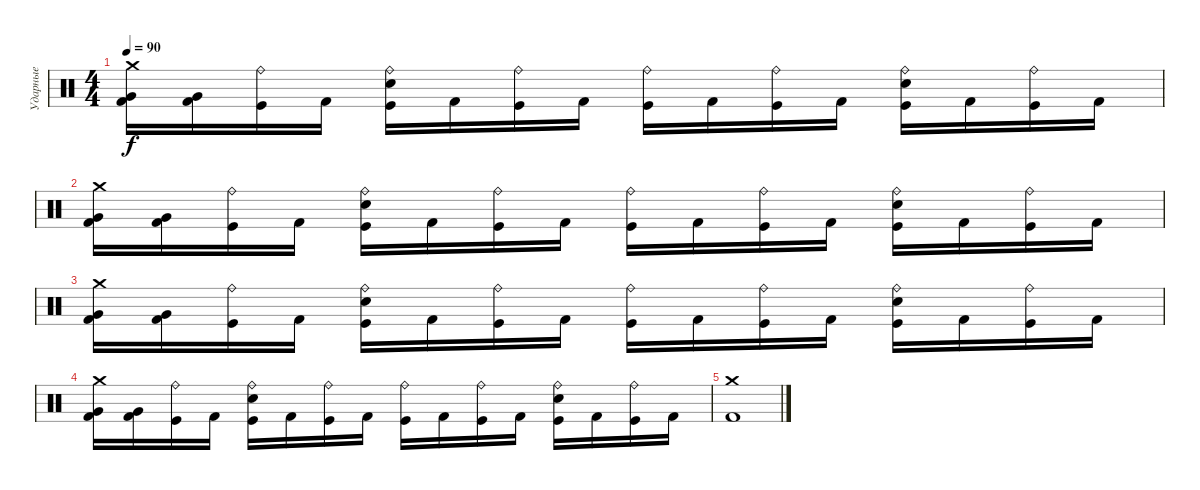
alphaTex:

\track ("Ударные" "Ударные") {instrument percussion}
\staff {score}
\articulation defaults
\ts (4 4)
\tempo 90
\clef neutral
\ks c
("Very Low Tom (hit)" "Kick (hit) 2" "Crash medium (hit)").16{dy f} ("Very Low Tom (hit)" "Kick (hit) 2").16 ("Kick (hit)" "Ride (bell)").16 "Kick (hit) 2".16 ("Kick (hit)" "Electric Snare (hit)" "Ride (bell)").16 "Kick (hit) 2".16 ("Kick (hit)" "Ride (bell)").16 "Kick (hit) 2".16 ("Kick (hit)" "Ride (bell)").16 "Kick (hit) 2".16 ("Kick (hit)" "Ride (bell)").16 "Kick (hit) 2".16 ("Kick (hit)" "Electric Snare (hit)" "Ride (bell)").16 "Kick (hit) 2".16 ("Kick (hit)" "Ride (bell)").16 "Kick (hit) 2".16 |
("Very Low Tom (hit)" "Kick (hit) 2" "Crash medium (hit)").16 ("Very Low Tom (hit)" "Kick (hit) 2").16 ("Kick (hit)" "Ride (bell)").16 "Kick (hit) 2".16 ("Kick (hit)" "Electric Snare (hit)" "Ride (bell)").16 "Kick (hit) 2".16 ("Kick (hit)" "Ride (bell)").16 "Kick (hit) 2".16 ("Kick (hit)" "Ride (bell)").16 "Kick (hit) 2".16 ("Kick (hit)" "Ride (bell)").16 "Kick (hit) 2".16 ("Kick (hit)" "Electric Snare (hit)" "Ride (bell)").16 "Kick (hit) 2".16 ("Kick (hit)" "Ride (bell)").16 "Kick (hit) 2".16 |
("Very Low Tom (hit)" "Kick (hit) 2" "Crash medium (hit)").16 ("Very Low Tom (hit)" "Kick (hit) 2").16 ("Kick (hit)" "Ride (bell)").16 "Kick (hit) 2".16 ("Kick (hit)" "Electric Snare (hit)" "Ride (bell)").16 "Kick (hit) 2".16 ("Kick (hit)" "Ride (bell)").16 "Kick (hit) 2".16 ("Kick (hit)" "Ride (bell)").16 "Kick (hit) 2".16 ("Kick (hit)" "Ride (bell)").16 "Kick (hit) 2".16 ("Kick (hit)" "Electric Snare (hit)" "Ride (bell)").16 "Kick (hit) 2".16 ("Kick (hit)" "Ride (bell)").16 "Kick (hit) 2".16 |
("Very Low Tom (hit)" "Kick (hit) 2" "Crash medium (hit)").16 ("Very Low Tom (hit)" "Kick (hit) 2").16 ("Kick (hit)" "Ride (bell)").16 "Kick (hit) 2".16 ("Kick (hit)" "Electric Snare (hit)" "Ride (bell)").16 "Kick (hit) 2".16 ("Kick (hit)" "Ride (bell)").16 "Kick (hit) 2".16 ("Kick (hit)" "Ride (bell)").16 "Kick (hit) 2".16 ("Kick (hit)" "Ride (bell)").16 "Kick (hit) 2".16 ("Kick (hit)" "Electric Snare (hit)" "Ride (bell)").16 "Kick (hit) 2".16 ("Kick (hit)" "Ride (bell)").16 "Kick (hit) 2".16 |
("Crash medium (hit)" "Kick (hit) 2").1
